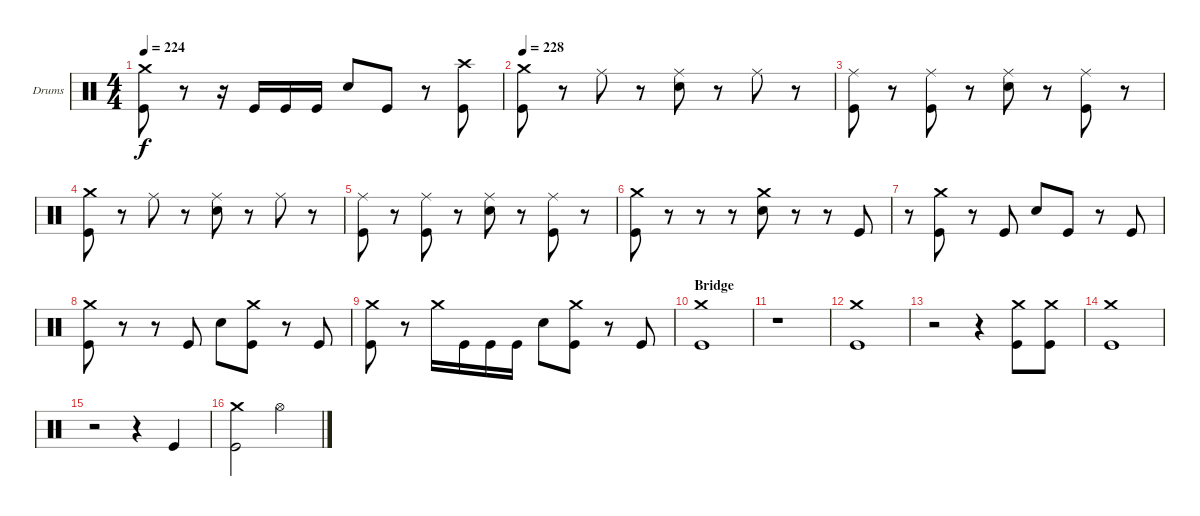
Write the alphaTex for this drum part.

\bracketExtendMode groupsimilarinstruments
\firstSystemTrackNameOrientation horizontal
\otherSystemsTrackNameOrientation horizontal
\track ("Drumkit" "Drums") {instrument percussion}
\staff {score}
\articulation defaults
\ts (4 4)
\tempo 224
\clef neutral
\ks c
("Crash medium (hit)" "Kick (hit)").8{dy f} r.8 r.16 "Kick (hit)".16 "Kick (hit)".16 "Kick (hit)".16 "Snare (hit) 2".8 "Kick (hit)".8 r.8 ("Crash high (hit)" "Kick (hit)").8 |
\tempo 228
("Crash medium (hit)" "Kick (hit)").8 r.8 "Ride (middle)".8 r.8 ("Ride (middle)" "Snare (hit) 2").8 r.8 "Ride (middle)".8 r.8 |
("Ride (middle)" "Kick (hit)").8 r.8 ("Ride (middle)" "Kick (hit)").8 r.8 ("Ride (middle)" "Snare (hit) 2").8 r.8 ("Ride (middle)" "Kick (hit)").8 r.8 |
("Crash medium (hit)" "Kick (hit)").8 r.8 "Ride (middle)".8 r.8 ("Ride (middle)" "Snare (hit) 2").8 r.8 "Ride (middle)".8 r.8 |
("Ride (middle)" "Kick (hit)").8 r.8 ("Ride (middle)" "Kick (hit)").8 r.8 ("Ride (middle)" "Snare (hit) 2").8 r.8 ("Ride (middle)" "Kick (hit)").8 r.8 |
("Crash medium (hit)" "Kick (hit)").8 r.8 r.8 r.8 ("Crash medium (hit)" "Snare (hit) 2").8 r.8 r.8 "Kick (hit)".8 |
r.8 ("Crash medium (hit)" "Kick (hit)").8 r.8 "Kick (hit)".8 "Snare (hit) 2".8 "Kick (hit)".8 r.8 "Kick (hit)".8 |
("Crash medium (hit)" "Kick (hit)").8 r.8 r.8 "Kick (hit)".8 "Snare (hit) 2".8 ("Crash medium (hit)" "Kick (hit)").8 r.8 "Kick (hit)".8 |
("Crash medium (hit)" "Kick (hit)").8 r.8 "Crash medium (hit)".16 "Kick (hit)".16 "Kick (hit)".16 "Kick (hit)".16 "Snare (hit) 2".8 ("Crash medium (hit)" "Kick (hit)").8 r.8 "Kick (hit)".8 |
\section ("" "Bridge")
("Crash medium (hit)" "Kick (hit)").1 |
r.1 |
("Crash medium (hit)" "Kick (hit)").1 |
r.2 r.4 ("Crash medium (hit)" "Kick (hit)").8 ("Crash medium (hit)" "Kick (hit)").8 |
("Crash medium (hit)" "Kick (hit)").1 |
r.2 r.4 "Kick (hit)".4 |
("Crash medium (hit)" "Kick (hit)").2 "Hi-Hat (open)".2
